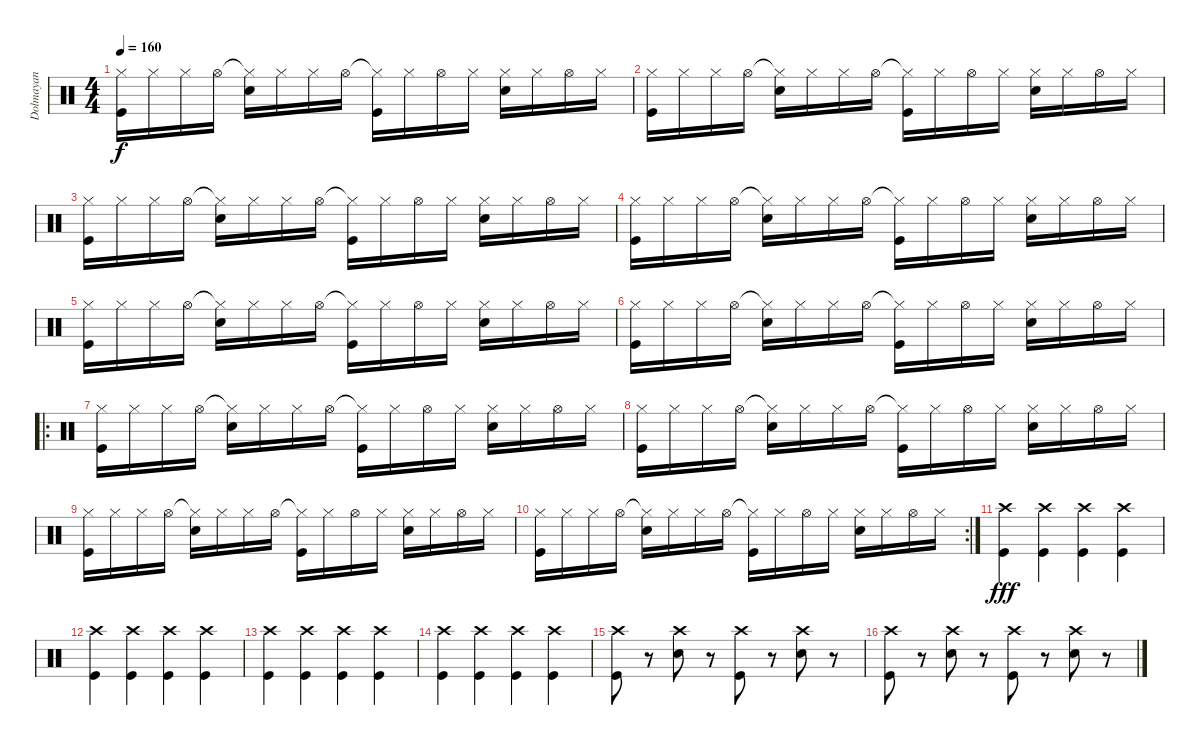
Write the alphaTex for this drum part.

\track ("Dolmayan" "Dolmayan") {instrument percussion}
\staff {score}
\articulation defaults
\ts (4 4)
\tempo 160
\clef neutral
\ks c
("Hi-Hat (closed)" "Kick (hit)").16{dy f} "Hi-Hat (closed)".16 "Hi-Hat (closed)".16 "Hi-Hat (open)".16 ("Hi-Hat (closed)"{t} "Electric Snare (hit)").16 "Hi-Hat (closed)".16 "Hi-Hat (closed)".16 "Hi-Hat (open)".16 ("Hi-Hat (closed)"{t} "Kick (hit)").16 "Hi-Hat (closed)".16 "Hi-Hat (open)".16 "Hi-Hat (closed)".16 ("Hi-Hat (closed)" "Electric Snare (hit)").16 "Hi-Hat (closed)".16 "Hi-Hat (open)".16 "Hi-Hat (closed)".16 |
("Hi-Hat (closed)" "Kick (hit)").16 "Hi-Hat (closed)".16 "Hi-Hat (closed)".16 "Hi-Hat (open)".16 ("Hi-Hat (closed)"{t} "Electric Snare (hit)").16 "Hi-Hat (closed)".16 "Hi-Hat (closed)".16 "Hi-Hat (open)".16 ("Hi-Hat (closed)"{t} "Kick (hit)").16 "Hi-Hat (closed)".16 "Hi-Hat (open)".16 "Hi-Hat (closed)".16 ("Hi-Hat (closed)" "Electric Snare (hit)").16 "Hi-Hat (closed)".16 "Hi-Hat (open)".16 "Hi-Hat (closed)".16 |
("Hi-Hat (closed)" "Kick (hit)").16 "Hi-Hat (closed)".16 "Hi-Hat (closed)".16 "Hi-Hat (open)".16 ("Hi-Hat (closed)"{t} "Electric Snare (hit)").16 "Hi-Hat (closed)".16 "Hi-Hat (closed)".16 "Hi-Hat (open)".16 ("Hi-Hat (closed)"{t} "Kick (hit)").16 "Hi-Hat (closed)".16 "Hi-Hat (open)".16 "Hi-Hat (closed)".16 ("Hi-Hat (closed)" "Electric Snare (hit)").16 "Hi-Hat (closed)".16 "Hi-Hat (open)".16 "Hi-Hat (closed)".16 |
("Hi-Hat (closed)" "Kick (hit)").16 "Hi-Hat (closed)".16 "Hi-Hat (closed)".16 "Hi-Hat (open)".16 ("Hi-Hat (closed)"{t} "Electric Snare (hit)").16 "Hi-Hat (closed)".16 "Hi-Hat (closed)".16 "Hi-Hat (open)".16 ("Hi-Hat (closed)"{t} "Kick (hit)").16 "Hi-Hat (closed)".16 "Hi-Hat (open)".16 "Hi-Hat (closed)".16 ("Hi-Hat (closed)" "Electric Snare (hit)").16 "Hi-Hat (closed)".16 "Hi-Hat (open)".16 "Hi-Hat (closed)".16 |
("Hi-Hat (closed)" "Kick (hit)").16 "Hi-Hat (closed)".16 "Hi-Hat (closed)".16 "Hi-Hat (open)".16 ("Hi-Hat (closed)"{t} "Electric Snare (hit)").16 "Hi-Hat (closed)".16 "Hi-Hat (closed)".16 "Hi-Hat (open)".16 ("Hi-Hat (closed)"{t} "Kick (hit)").16 "Hi-Hat (closed)".16 "Hi-Hat (open)".16 "Hi-Hat (closed)".16 ("Hi-Hat (closed)" "Electric Snare (hit)").16 "Hi-Hat (closed)".16 "Hi-Hat (open)".16 "Hi-Hat (closed)".16 |
("Hi-Hat (closed)" "Kick (hit)").16 "Hi-Hat (closed)".16 "Hi-Hat (closed)".16 "Hi-Hat (open)".16 ("Hi-Hat (closed)"{t} "Electric Snare (hit)").16 "Hi-Hat (closed)".16 "Hi-Hat (closed)".16 "Hi-Hat (open)".16 ("Hi-Hat (closed)"{t} "Kick (hit)").16 "Hi-Hat (closed)".16 "Hi-Hat (open)".16 "Hi-Hat (closed)".16 ("Hi-Hat (closed)" "Electric Snare (hit)").16 "Hi-Hat (closed)".16 "Hi-Hat (open)".16 "Hi-Hat (closed)".16 |
\ro
("Hi-Hat (closed)" "Kick (hit)").16 "Hi-Hat (closed)".16 "Hi-Hat (closed)".16 "Hi-Hat (open)".16 ("Hi-Hat (closed)"{t} "Electric Snare (hit)").16 "Hi-Hat (closed)".16 "Hi-Hat (closed)".16 "Hi-Hat (open)".16 ("Hi-Hat (closed)"{t} "Kick (hit)").16 "Hi-Hat (closed)".16 "Hi-Hat (open)".16 "Hi-Hat (closed)".16 ("Hi-Hat (closed)" "Electric Snare (hit)").16 "Hi-Hat (closed)".16 "Hi-Hat (open)".16 "Hi-Hat (closed)".16 |
("Hi-Hat (closed)" "Kick (hit)").16 "Hi-Hat (closed)".16 "Hi-Hat (closed)".16 "Hi-Hat (open)".16 ("Hi-Hat (closed)"{t} "Electric Snare (hit)").16 "Hi-Hat (closed)".16 "Hi-Hat (closed)".16 "Hi-Hat (open)".16 ("Hi-Hat (closed)"{t} "Kick (hit)").16 "Hi-Hat (closed)".16 "Hi-Hat (open)".16 "Hi-Hat (closed)".16 ("Hi-Hat (closed)" "Electric Snare (hit)").16 "Hi-Hat (closed)".16 "Hi-Hat (open)".16 "Hi-Hat (closed)".16 |
("Hi-Hat (closed)" "Kick (hit)").16 "Hi-Hat (closed)".16 "Hi-Hat (closed)".16 "Hi-Hat (open)".16 ("Hi-Hat (closed)"{t} "Electric Snare (hit)").16 "Hi-Hat (closed)".16 "Hi-Hat (closed)".16 "Hi-Hat (open)".16 ("Hi-Hat (closed)"{t} "Kick (hit)").16 "Hi-Hat (closed)".16 "Hi-Hat (open)".16 "Hi-Hat (closed)".16 ("Hi-Hat (closed)" "Electric Snare (hit)").16 "Hi-Hat (closed)".16 "Hi-Hat (open)".16 "Hi-Hat (closed)".16 |
\rc 2
("Hi-Hat (closed)" "Kick (hit)").16 "Hi-Hat (closed)".16 "Hi-Hat (closed)".16 "Hi-Hat (open)".16 ("Hi-Hat (closed)"{t} "Electric Snare (hit)").16 "Hi-Hat (closed)".16 "Hi-Hat (closed)".16 "Hi-Hat (open)".16 ("Hi-Hat (closed)"{t} "Kick (hit)").16 "Hi-Hat (closed)".16 "Hi-Hat (open)".16 "Hi-Hat (closed)".16 ("Hi-Hat (closed)" "Electric Snare (hit)").16 "Hi-Hat (closed)".16 "Hi-Hat (open)".16 "Hi-Hat (closed)".16 |
("Crash high (hit)" "Kick (hit)").4{dy fff} ("Crash high (hit)" "Kick (hit)").4 ("Crash high (hit)" "Kick (hit)").4 ("Crash high (hit)" "Kick (hit)").4 |
("Crash high (hit)" "Kick (hit)").4 ("Crash high (hit)" "Kick (hit)").4 ("Crash high (hit)" "Kick (hit)").4 ("Crash high (hit)" "Kick (hit)").4 |
("Crash high (hit)" "Kick (hit)").4 ("Crash high (hit)" "Kick (hit)").4 ("Crash high (hit)" "Kick (hit)").4 ("Crash high (hit)" "Kick (hit)").4 |
("Crash high (hit)" "Kick (hit)").4 ("Crash high (hit)" "Kick (hit)").4 ("Crash high (hit)" "Kick (hit)").4 ("Crash high (hit)" "Kick (hit)").4 |
("Crash high (hit)" "Kick (hit)").8 r.8 ("Crash high (hit)" "Electric Snare (hit)").8 r.8 ("Crash high (hit)" "Kick (hit)").8 r.8 ("Crash high (hit)" "Electric Snare (hit)").8 r.8 |
("Crash high (hit)" "Kick (hit)").8 r.8 ("Crash high (hit)" "Electric Snare (hit)").8 r.8 ("Crash high (hit)" "Kick (hit)").8 r.8 ("Crash high (hit)" "Electric Snare (hit)").8 r.8
